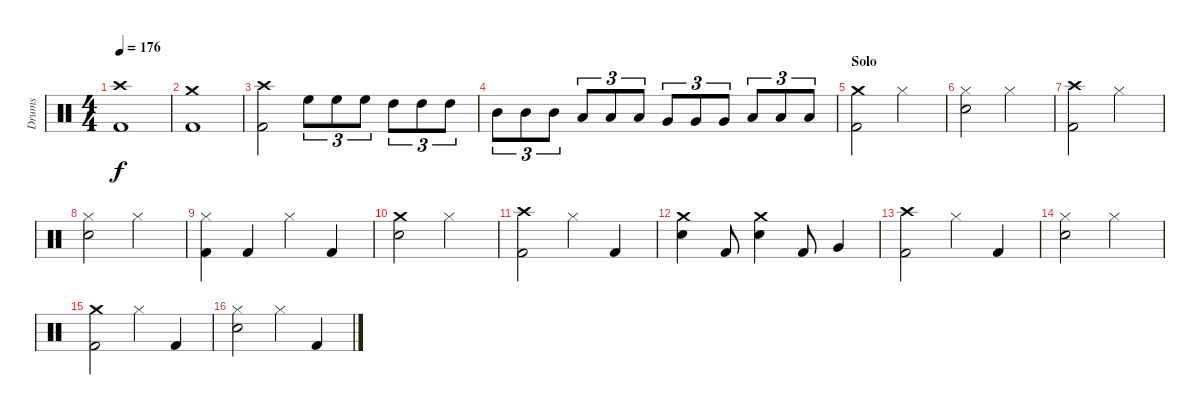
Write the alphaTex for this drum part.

\track ("Drums" "Drums") {instrument percussion}
\staff {score}
\articulation defaults
\ts (4 4)
\tempo 176
\clef neutral
\ks c
("Kick (hit) 2" "Crash high (hit)").1{dy f} |
("Kick (hit) 2" "Crash medium (hit)").1 |
("Kick (hit) 2" "Crash high (hit)").2 "High Floor Tom (hit)".8{tu (3 2)} "High Floor Tom (hit)".8{tu (3 2)} "High Floor Tom (hit)".8{tu (3 2)} "High Tom (hit)".8{tu (3 2)} "High Tom (hit)".8{tu (3 2)} "High Tom (hit)".8{tu (3 2)} |
"Mid Tom (hit)".8{tu (3 2)} "Mid Tom (hit)".8{tu (3 2)} "Mid Tom (hit)".8{tu (3 2)} "Low Tom (hit)".8{tu (3 2)} "Low Tom (hit)".8{tu (3 2)} "Low Tom (hit)".8{tu (3 2)} "Very Low Tom (hit)".8{tu (3 2)} "Very Low Tom (hit)".8{tu (3 2)} "Very Low Tom (hit)".8{tu (3 2)} "Low Floor Tom (hit)".8{tu (3 2)} "Low Floor Tom (hit)".8{tu (3 2)} "Low Floor Tom (hit)".8{tu (3 2)} |
\section ("" "Solo")
("Kick (hit) 2" "Crash medium (hit)").2 "Hi-Hat (closed)".2 |
("Electric Snare (hit)" "Hi-Hat (closed)").2 "Hi-Hat (closed)".2 |
("Kick (hit) 2" "Crash high (hit)").2 "Hi-Hat (closed)".2 |
("Electric Snare (hit)" "Hi-Hat (closed)").2 "Hi-Hat (closed)".2 |
("Kick (hit) 2" "Hi-Hat (closed)").4 "Kick (hit) 2".4 "Hi-Hat (closed)".4 "Kick (hit) 2".4 |
("Electric Snare (hit)" "Crash medium (hit)").2 "Hi-Hat (closed)".2 |
("Kick (hit) 2" "Crash high (hit)").2 "Hi-Hat (closed)".4 "Kick (hit) 2".4 |
("Electric Snare (hit)" "Crash medium (hit)").4 "Kick (hit) 2".8 ("Electric Snare (hit)" "Crash medium (hit)").4 "Kick (hit) 2".8 "Very Low Tom (hit)".4 |
\section ("" "")
("Kick (hit) 2" "Crash high (hit)").2 "Hi-Hat (closed)".4 "Kick (hit) 2".4 |
("Electric Snare (hit)" "Hi-Hat (closed)").2 "Hi-Hat (closed)".2 |
("Kick (hit) 2" "Crash medium (hit)").2 "Hi-Hat (closed)".4 "Kick (hit) 2".4 |
("Electric Snare (hit)" "Hi-Hat (closed)").2 "Hi-Hat (closed)".4 "Kick (hit) 2".4
